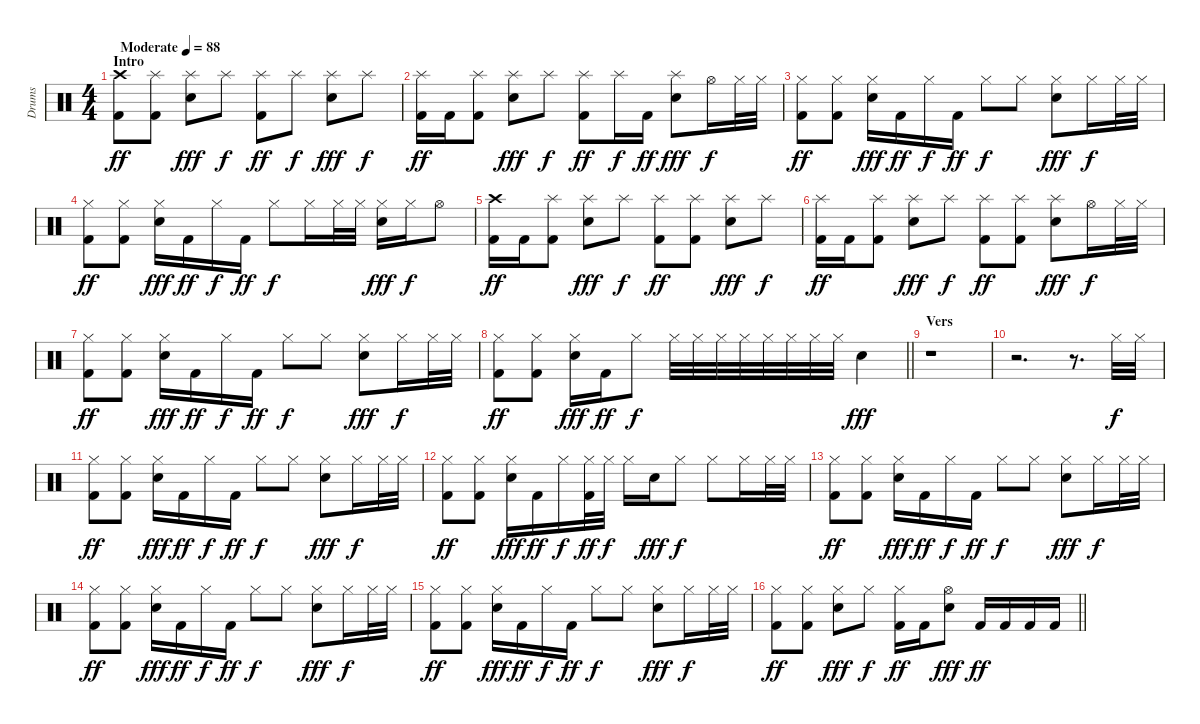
\track ("Drums" "Drums") {instrument percussion}
\staff {score}
\articulation defaults
\ts (4 4)
\section ("" "Intro")
\tempo (88 "Moderate")
\clef neutral
\ks c
("Crash high (hit)" "Kick (hit) 2").8{dy ff} ("Splash (hit)" "Kick (hit) 2").8 ("Splash (hit)" "Snare (hit) 2").8{dy fff} "Splash (hit)".8{dy f} ("Splash (hit)" "Kick (hit) 2").8{dy ff} "Splash (hit)".8{dy f} ("Splash (hit)" "Snare (hit) 2").8{dy fff} "Splash (hit)".8{dy f} |
("Splash (hit)" "Kick (hit) 2").16{dy ff} "Kick (hit) 2".16 ("Splash (hit)" "Kick (hit) 2").8 ("Splash (hit)" "Snare (hit) 2").8{dy fff} "Splash (hit)".8{dy f} ("Splash (hit)" "Kick (hit) 2").8{dy ff} "Splash (hit)".16{dy f} "Kick (hit) 2".16{dy ff} ("Splash (hit)" "Snare (hit) 2").8{dy fff} "Hi-Hat (open)".16{dy f} "Hi-Hat (closed)".32 "Hi-Hat (closed)".32 |
("Hi-Hat (closed)" "Kick (hit) 2").8{dy ff} ("Hi-Hat (closed)" "Kick (hit) 2").8 ("Hi-Hat (closed)" "Snare (hit) 2").16{dy fff} "Kick (hit) 2".16{dy ff} "Hi-Hat (closed)".16{dy f} "Kick (hit) 2".16{dy ff} "Hi-Hat (closed)".8{dy f} "Hi-Hat (closed)".8 ("Hi-Hat (closed)" "Snare (hit) 2").8{dy fff} "Hi-Hat (closed)".16{dy f} "Hi-Hat (closed)".32 "Hi-Hat (closed)".32 |
("Hi-Hat (closed)" "Kick (hit) 2").8{dy ff} ("Hi-Hat (closed)" "Kick (hit) 2").8 ("Hi-Hat (closed)" "Snare (hit) 2").16{dy fff} "Kick (hit) 2".16{dy ff} "Hi-Hat (closed)".16{dy f} "Kick (hit) 2".16{dy ff} "Hi-Hat (closed)".8{dy f} "Hi-Hat (closed)".16 "Hi-Hat (closed)".32 "Hi-Hat (closed)".32 ("Hi-Hat (closed)" "Snare (hit) 2").16{dy fff} "Hi-Hat (closed)".16{dy f} "Hi-Hat (open)".8 |
("Crash high (hit)" "Kick (hit) 2").16{dy ff} "Kick (hit) 2".16 ("Splash (hit)" "Kick (hit) 2").8 ("Splash (hit)" "Snare (hit) 2").8{dy fff} "Splash (hit)".8{dy f} ("Splash (hit)" "Kick (hit) 2").8{dy ff} ("Splash (hit)" "Kick (hit) 2").8 ("Splash (hit)" "Snare (hit) 2").8{dy fff} "Splash (hit)".8{dy f} |
("Splash (hit)" "Kick (hit) 2").16{dy ff} "Kick (hit) 2".16 ("Splash (hit)" "Kick (hit) 2").8 ("Splash (hit)" "Snare (hit) 2").8{dy fff} "Splash (hit)".8{dy f} ("Splash (hit)" "Kick (hit) 2").8{dy ff} ("Splash (hit)" "Kick (hit) 2").8 ("Splash (hit)" "Snare (hit) 2").8{dy fff} "Hi-Hat (open)".16{dy f} "Hi-Hat (closed)".32 "Hi-Hat (closed)".32 |
("Hi-Hat (closed)" "Kick (hit) 2").8{dy ff} ("Hi-Hat (closed)" "Kick (hit) 2").8 ("Hi-Hat (closed)" "Snare (hit) 2").16{dy fff} "Kick (hit) 2".16{dy ff} "Hi-Hat (closed)".16{dy f} "Kick (hit) 2".16{dy ff} "Hi-Hat (closed)".8{dy f} "Hi-Hat (closed)".8 ("Hi-Hat (closed)" "Snare (hit) 2").8{dy fff} "Hi-Hat (closed)".16{dy f} "Hi-Hat (closed)".32 "Hi-Hat (closed)".32 |
\barLineRight lightlight
("Hi-Hat (closed)" "Kick (hit) 2").8{dy ff} ("Hi-Hat (closed)" "Kick (hit) 2").8 ("Hi-Hat (closed)" "Snare (hit) 2").16{dy fff} "Kick (hit) 2".16{dy ff} "Hi-Hat (closed)".8{dy f} "Hi-Hat (closed)".32 "Hi-Hat (closed)".32 "Hi-Hat (closed)".32 "Hi-Hat (closed)".32 "Hi-Hat (closed)".32 "Hi-Hat (closed)".32 "Hi-Hat (closed)".32 "Hi-Hat (closed)".32 "Snare (hit) 2".4{dy fff} |
\section ("" "Vers")
r.1 |
r.2{d} r.8{d} "Hi-Hat (closed)".32{dy f} "Hi-Hat (closed)".32 |
("Hi-Hat (closed)" "Kick (hit) 2").8{dy ff} ("Hi-Hat (closed)" "Kick (hit) 2").8 ("Hi-Hat (closed)" "Snare (hit) 2").16{dy fff} "Kick (hit) 2".16{dy ff} "Hi-Hat (closed)".16{dy f} "Kick (hit) 2".16{dy ff} "Hi-Hat (closed)".8{dy f} "Hi-Hat (closed)".8 ("Hi-Hat (closed)" "Snare (hit) 2").8{dy fff} "Hi-Hat (closed)".16{dy f} "Hi-Hat (closed)".32 "Hi-Hat (closed)".32 |
("Hi-Hat (closed)" "Kick (hit) 2").8{dy ff} ("Hi-Hat (closed)" "Kick (hit) 2").8 ("Hi-Hat (closed)" "Snare (hit) 2").16{dy fff} "Kick (hit) 2".16{dy ff} "Hi-Hat (closed)".16{dy f} ("Hi-Hat (closed)" "Kick (hit) 2").32{dy ff} "Hi-Hat (closed)".32{dy f} "Hi-Hat (closed)".16 "Snare (hit) 2".16{dy fff} "Hi-Hat (closed)".8{dy f} "Hi-Hat (closed)".8 "Hi-Hat (closed)".16 "Hi-Hat (closed)".32 "Hi-Hat (closed)".32 |
("Hi-Hat (closed)" "Kick (hit) 2").8{dy ff} ("Hi-Hat (closed)" "Kick (hit) 2").8 ("Hi-Hat (closed)" "Snare (hit) 2").16{dy fff} "Kick (hit) 2".16{dy ff} "Hi-Hat (closed)".16{dy f} "Kick (hit) 2".16{dy ff} "Hi-Hat (closed)".8{dy f} "Hi-Hat (closed)".8 ("Hi-Hat (closed)" "Snare (hit) 2").8{dy fff} "Hi-Hat (closed)".16{dy f} "Hi-Hat (closed)".32 "Hi-Hat (closed)".32 |
("Hi-Hat (closed)" "Kick (hit) 2").8{dy ff} ("Hi-Hat (closed)" "Kick (hit) 2").8 ("Hi-Hat (closed)" "Snare (hit) 2").16{dy fff} "Kick (hit) 2".16{dy ff} "Hi-Hat (closed)".16{dy f} "Kick (hit) 2".16{dy ff} "Hi-Hat (closed)".8{dy f} "Hi-Hat (closed)".8 ("Hi-Hat (closed)" "Snare (hit) 2").8{dy fff} "Hi-Hat (closed)".16{dy f} "Hi-Hat (closed)".32 "Hi-Hat (closed)".32 |
("Hi-Hat (closed)" "Kick (hit) 2").8{dy ff} ("Hi-Hat (closed)" "Kick (hit) 2").8 ("Hi-Hat (closed)" "Snare (hit) 2").16{dy fff} "Kick (hit) 2".16{dy ff} "Hi-Hat (closed)".16{dy f} "Kick (hit) 2".16{dy ff} "Hi-Hat (closed)".8{dy f} "Hi-Hat (closed)".8 ("Hi-Hat (closed)" "Snare (hit) 2").8{dy fff} "Hi-Hat (closed)".16{dy f} "Hi-Hat (closed)".32 "Hi-Hat (closed)".32 |
\barLineRight lightlight
("Hi-Hat (closed)" "Kick (hit) 2").8{dy ff} ("Hi-Hat (closed)" "Kick (hit) 2").8 ("Hi-Hat (closed)" "Snare (hit) 2").8{dy fff} "Hi-Hat (closed)".8{dy f} ("Hi-Hat (closed)" "Kick (hit) 2").16{dy ff} "Kick (hit) 2".16 ("Hi-Hat (open)" "Snare (hit) 2").8{dy fff} "Kick (hit) 2".16{dy ff} "Kick (hit) 2".16 "Kick (hit) 2".16 "Kick (hit) 2".16
